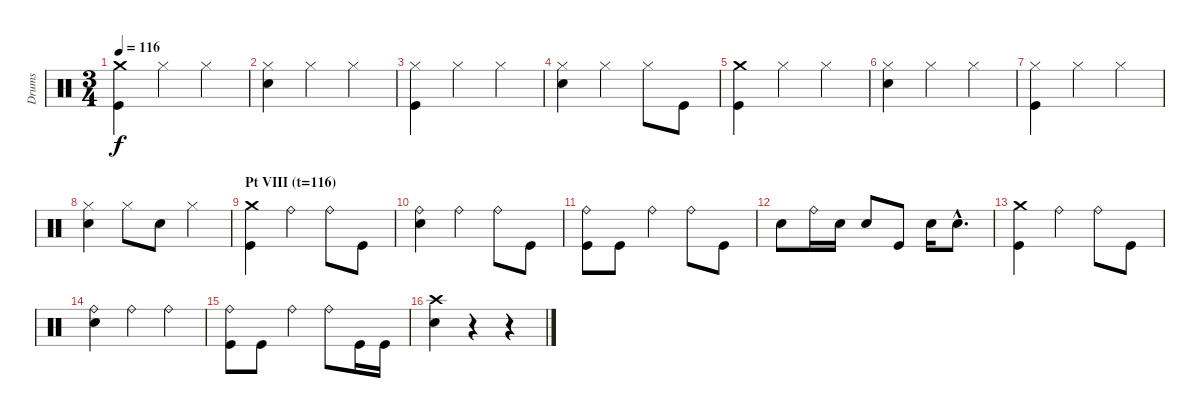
\track ("Drums" "Drums") {instrument percussion}
\staff {score}
\articulation defaults
\ts (3 4)
\tempo 116
\clef neutral
\ks c
("Kick (hit)" "Crash medium (hit)").4{dy f} "Hi-Hat (closed)".4 "Hi-Hat (closed)".4 |
("Electric Snare (hit)" "Hi-Hat (closed)").4 "Hi-Hat (closed)".4 "Hi-Hat (closed)".4 |
("Kick (hit)" "Hi-Hat (closed)").4 "Hi-Hat (closed)".4 "Hi-Hat (closed)".4 |
("Electric Snare (hit)" "Hi-Hat (closed)").4 "Hi-Hat (closed)".4 "Hi-Hat (closed)".8 "Kick (hit)".8 |
("Kick (hit)" "Crash medium (hit)").4 "Hi-Hat (closed)".4 "Hi-Hat (closed)".4 |
("Electric Snare (hit)" "Hi-Hat (closed)").4 "Hi-Hat (closed)".4 "Hi-Hat (closed)".4 |
("Kick (hit)" "Hi-Hat (closed)").4 "Hi-Hat (closed)".4 "Hi-Hat (closed)".4 |
("Electric Snare (hit)" "Hi-Hat (closed)").4 "Hi-Hat (closed)".8 "Electric Snare (hit)".8 "Hi-Hat (closed)".4 |
\section ("" "Pt VIII (t=116)")
("Kick (hit)" "Crash medium (hit)").4 "Ride (bell)".4 "Ride (bell)".8 "Kick (hit)".8 |
("Electric Snare (hit)" "Ride (bell)").4 "Ride (bell)".4 "Ride (bell)".8 "Kick (hit)".8 |
("Kick (hit)" "Ride (bell)").8 "Kick (hit)".8 "Ride (bell)".4 "Ride (bell)".8 "Kick (hit)".8 |
"Electric Snare (hit)".8 "Ride (bell)".16 "Electric Snare (hit)".16 "Electric Snare (hit)".8 "Kick (hit)".8 "Electric Snare (hit)".16 "Electric Snare (hit)"{hac}.8{d} |
("Kick (hit)" "Crash medium (hit)").4 "Ride (bell)".4 "Ride (bell)".8 "Kick (hit)".8 |
("Electric Snare (hit)" "Ride (bell)").4 "Ride (bell)".4 "Ride (bell)".4 |
("Kick (hit)" "Ride (bell)").8 "Kick (hit)".8 "Ride (bell)".4 "Ride (bell)".8 "Kick (hit)".16 "Kick (hit)".16 |
("Electric Snare (hit)" "Crash high (hit)").4 r.4 r.4
